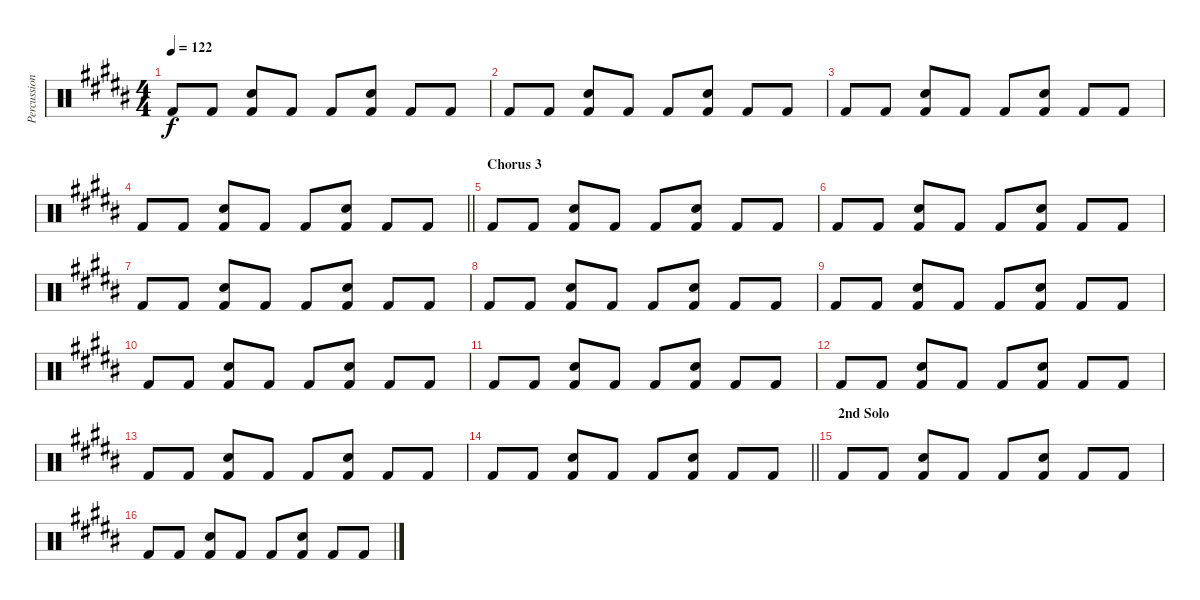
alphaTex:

\track ("Percussion" "Percussion") {instrument percussion}
\staff {score}
\articulation defaults
\ts (4 4)
\tempo 122
\clef neutral
\ks b "Kick (hit) 2".8{dy f} "Kick (hit) 2".8
("Kick (hit) 2" "Snare (hit) 2").8 "Kick (hit) 2".8 "Kick (hit) 2".8 ("Kick (hit) 2" "Snare (hit) 2").8 "Kick (hit) 2".8 "Kick (hit) 2".8 |
"Kick (hit) 2".8 "Kick (hit) 2".8 ("Kick (hit) 2" "Snare (hit) 2").8 "Kick (hit) 2".8 "Kick (hit) 2".8 ("Kick (hit) 2" "Snare (hit) 2").8 "Kick (hit) 2".8 "Kick (hit) 2".8 |
"Kick (hit) 2".8 "Kick (hit) 2".8 ("Kick (hit) 2" "Snare (hit) 2").8 "Kick (hit) 2".8 "Kick (hit) 2".8 ("Kick (hit) 2" "Snare (hit) 2").8 "Kick (hit) 2".8 "Kick (hit) 2".8 |
\barLineRight lightlight "Kick (hit) 2".8 "Kick (hit) 2".8
("Kick (hit) 2" "Snare (hit) 2").8 "Kick (hit) 2".8 "Kick (hit) 2".8 ("Kick (hit) 2" "Snare (hit) 2").8 "Kick (hit) 2".8 "Kick (hit) 2".8 |
\section ("" "Chorus 3")
"Kick (hit) 2".8 "Kick (hit) 2".8 ("Kick (hit) 2" "Snare (hit) 2").8 "Kick (hit) 2".8 "Kick (hit) 2".8 ("Kick (hit) 2" "Snare (hit) 2").8 "Kick (hit) 2".8 "Kick (hit) 2".8 |
"Kick (hit) 2".8 "Kick (hit) 2".8 ("Kick (hit) 2" "Snare (hit) 2").8 "Kick (hit) 2".8 "Kick (hit) 2".8 ("Kick (hit) 2" "Snare (hit) 2").8 "Kick (hit) 2".8 "Kick (hit) 2".8 |
"Kick (hit) 2".8 "Kick (hit) 2".8 ("Kick (hit) 2" "Snare (hit) 2").8 "Kick (hit) 2".8 "Kick (hit) 2".8 ("Kick (hit) 2" "Snare (hit) 2").8 "Kick (hit) 2".8 "Kick (hit) 2".8 |
"Kick (hit) 2".8 "Kick (hit) 2".8 ("Kick (hit) 2" "Snare (hit) 2").8 "Kick (hit) 2".8 "Kick (hit) 2".8 ("Kick (hit) 2" "Snare (hit) 2").8 "Kick (hit) 2".8 "Kick (hit) 2".8 |
"Kick (hit) 2".8 "Kick (hit) 2".8 ("Kick (hit) 2" "Snare (hit) 2").8 "Kick (hit) 2".8 "Kick (hit) 2".8 ("Kick (hit) 2" "Snare (hit) 2").8 "Kick (hit) 2".8 "Kick (hit) 2".8 |
"Kick (hit) 2".8 "Kick (hit) 2".8 ("Kick (hit) 2" "Snare (hit) 2").8 "Kick (hit) 2".8 "Kick (hit) 2".8 ("Kick (hit) 2" "Snare (hit) 2").8 "Kick (hit) 2".8 "Kick (hit) 2".8 |
"Kick (hit) 2".8 "Kick (hit) 2".8 ("Kick (hit) 2" "Snare (hit) 2").8 "Kick (hit) 2".8 "Kick (hit) 2".8 ("Kick (hit) 2" "Snare (hit) 2").8 "Kick (hit) 2".8 "Kick (hit) 2".8 |
"Kick (hit) 2".8 "Kick (hit) 2".8 ("Kick (hit) 2" "Snare (hit) 2").8 "Kick (hit) 2".8 "Kick (hit) 2".8 ("Kick (hit) 2" "Snare (hit) 2").8 "Kick (hit) 2".8 "Kick (hit) 2".8 |
"Kick (hit) 2".8 "Kick (hit) 2".8 ("Kick (hit) 2" "Snare (hit) 2").8 "Kick (hit) 2".8 "Kick (hit) 2".8 ("Kick (hit) 2" "Snare (hit) 2").8 "Kick (hit) 2".8 "Kick (hit) 2".8 |
\barLineRight lightlight "Kick (hit) 2".8 "Kick (hit) 2".8
("Kick (hit) 2" "Snare (hit) 2").8 "Kick (hit) 2".8 "Kick (hit) 2".8 ("Kick (hit) 2" "Snare (hit) 2").8 "Kick (hit) 2".8 "Kick (hit) 2".8 |
\section ("" "2nd Solo")
"Kick (hit) 2".8 "Kick (hit) 2".8 ("Kick (hit) 2" "Snare (hit) 2").8 "Kick (hit) 2".8 "Kick (hit) 2".8 ("Kick (hit) 2" "Snare (hit) 2").8 "Kick (hit) 2".8 "Kick (hit) 2".8 |
"Kick (hit) 2".8 "Kick (hit) 2".8 ("Kick (hit) 2" "Snare (hit) 2").8 "Kick (hit) 2".8 "Kick (hit) 2".8 ("Kick (hit) 2" "Snare (hit) 2").8 "Kick (hit) 2".8 "Kick (hit) 2".8
